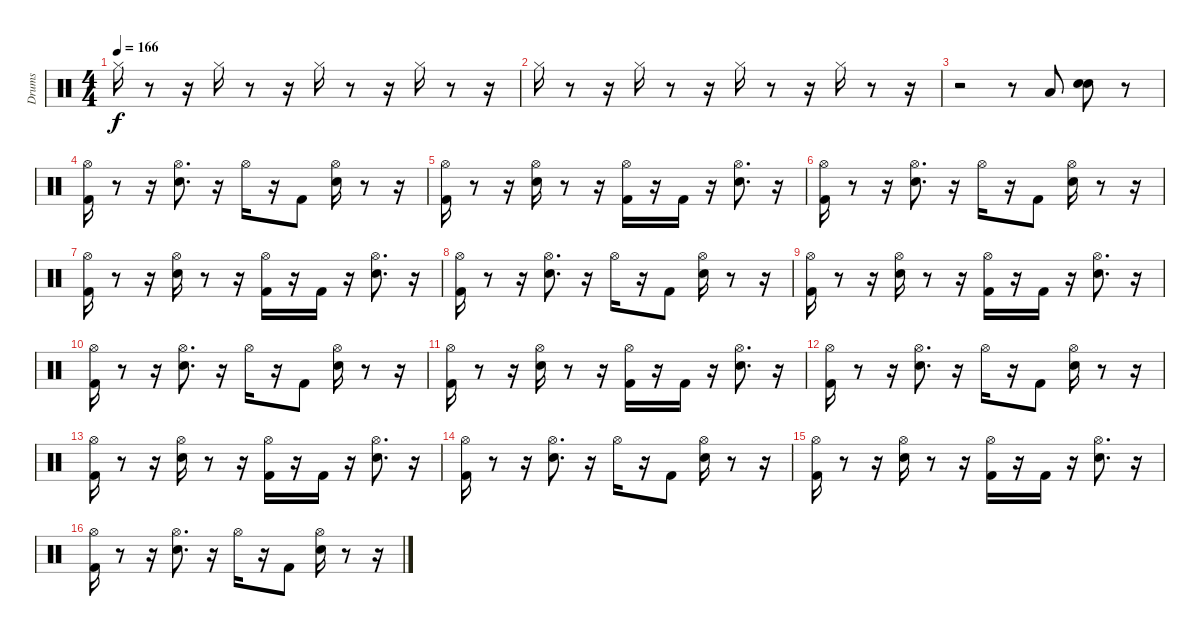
\track ("Drums" "Drums") {instrument percussion}
\staff {score}
\articulation defaults
\ts (4 4)
\tempo 166
\clef neutral
\ks c "Hi-Hat (closed)".16{dy f}
r.8 r.16 "Hi-Hat (closed)".16 r.8 r.16 "Hi-Hat (closed)".16 r.8 r.16 "Hi-Hat (closed)".16 r.8 r.16 |
"Hi-Hat (closed)".16 r.8 r.16 "Hi-Hat (closed)".16 r.8 r.16 "Hi-Hat (closed)".16 r.8 r.16 "Hi-Hat (closed)".16 r.8 r.16 |
r.2 r.8 "Low Floor Tom (hit)".8 ("Snare (hit)" "Snare (hit) 2").8 r.8 |
("Kick (hit) 2" "Hi-Hat (open)").16 r.8 r.16 ("Hi-Hat (open)" "Snare (hit) 2").8{d} r.16 "Hi-Hat (open)".16 r.16 "Kick (hit) 2".8 ("Snare (hit) 2" "Hi-Hat (open)").16 r.8 r.16 |
("Kick (hit) 2" "Hi-Hat (open)").16 r.8 r.16 ("Snare (hit) 2" "Hi-Hat (open)").16 r.8 r.16 ("Kick (hit) 2" "Hi-Hat (open)").16 r.16 "Kick (hit) 2".16 r.16 ("Snare (hit) 2" "Hi-Hat (open)").8{d} r.16 |
("Kick (hit) 2" "Hi-Hat (open)").16 r.8 r.16 ("Hi-Hat (open)" "Snare (hit) 2").8{d} r.16 "Hi-Hat (open)".16 r.16 "Kick (hit) 2".8 ("Snare (hit) 2" "Hi-Hat (open)").16 r.8 r.16 |
("Kick (hit) 2" "Hi-Hat (open)").16 r.8 r.16 ("Snare (hit) 2" "Hi-Hat (open)").16 r.8 r.16 ("Kick (hit) 2" "Hi-Hat (open)").16 r.16 "Kick (hit) 2".16 r.16 ("Snare (hit) 2" "Hi-Hat (open)").8{d} r.16 |
("Kick (hit) 2" "Hi-Hat (open)").16 r.8 r.16 ("Hi-Hat (open)" "Snare (hit) 2").8{d} r.16 "Hi-Hat (open)".16 r.16 "Kick (hit) 2".8 ("Snare (hit) 2" "Hi-Hat (open)").16 r.8 r.16 |
("Kick (hit) 2" "Hi-Hat (open)").16 r.8 r.16 ("Snare (hit) 2" "Hi-Hat (open)").16 r.8 r.16 ("Kick (hit) 2" "Hi-Hat (open)").16 r.16 "Kick (hit) 2".16 r.16 ("Snare (hit) 2" "Hi-Hat (open)").8{d} r.16 |
("Kick (hit) 2" "Hi-Hat (open)").16 r.8 r.16 ("Hi-Hat (open)" "Snare (hit) 2").8{d} r.16 "Hi-Hat (open)".16 r.16 "Kick (hit) 2".8 ("Snare (hit) 2" "Hi-Hat (open)").16 r.8 r.16 |
("Kick (hit) 2" "Hi-Hat (open)").16 r.8 r.16 ("Snare (hit) 2" "Hi-Hat (open)").16 r.8 r.16 ("Kick (hit) 2" "Hi-Hat (open)").16 r.16 "Kick (hit) 2".16 r.16 ("Snare (hit) 2" "Hi-Hat (open)").8{d} r.16 |
("Kick (hit) 2" "Hi-Hat (open)").16 r.8 r.16 ("Hi-Hat (open)" "Snare (hit) 2").8{d} r.16 "Hi-Hat (open)".16 r.16 "Kick (hit) 2".8 ("Snare (hit) 2" "Hi-Hat (open)").16 r.8 r.16 |
("Kick (hit) 2" "Hi-Hat (open)").16 r.8 r.16 ("Snare (hit) 2" "Hi-Hat (open)").16 r.8 r.16 ("Kick (hit) 2" "Hi-Hat (open)").16 r.16 "Kick (hit) 2".16 r.16 ("Snare (hit) 2" "Hi-Hat (open)").8{d} r.16 |
("Kick (hit) 2" "Hi-Hat (open)").16 r.8 r.16 ("Hi-Hat (open)" "Snare (hit) 2").8{d} r.16 "Hi-Hat (open)".16 r.16 "Kick (hit) 2".8 ("Snare (hit) 2" "Hi-Hat (open)").16 r.8 r.16 |
("Kick (hit) 2" "Hi-Hat (open)").16 r.8 r.16 ("Snare (hit) 2" "Hi-Hat (open)").16 r.8 r.16 ("Kick (hit) 2" "Hi-Hat (open)").16 r.16 "Kick (hit) 2".16 r.16 ("Snare (hit) 2" "Hi-Hat (open)").8{d} r.16 |
("Kick (hit) 2" "Hi-Hat (open)").16 r.8 r.16 ("Hi-Hat (open)" "Snare (hit) 2").8{d} r.16 "Hi-Hat (open)".16 r.16 "Kick (hit) 2".8 ("Snare (hit) 2" "Hi-Hat (open)").16 r.8 r.16
